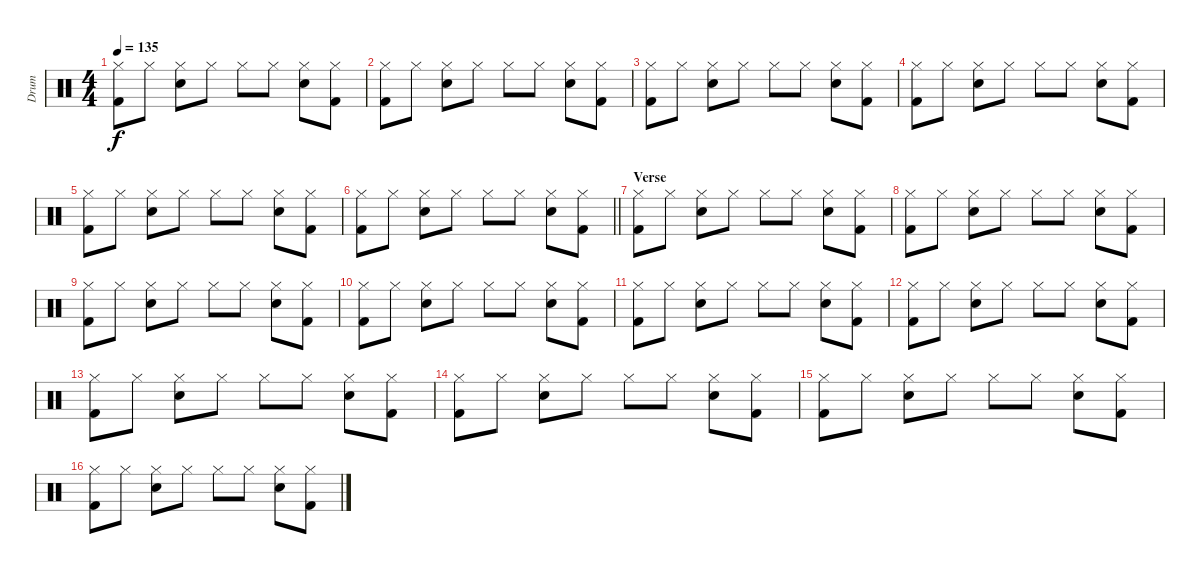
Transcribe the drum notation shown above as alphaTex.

\track ("Drum" "Drum") {instrument percussion}
\staff {score}
\articulation defaults
\ts (4 4)
\tempo 135
\clef neutral
\ks c
("Hi-Hat (closed)" "Kick (hit) 2").8{dy f} "Hi-Hat (closed)".8 ("Snare (hit) 2" "Hi-Hat (closed)").8 "Hi-Hat (closed)".8 "Hi-Hat (closed)".8 "Hi-Hat (closed)".8 ("Snare (hit) 2" "Hi-Hat (closed)").8 ("Hi-Hat (closed)" "Kick (hit) 2").8 |
("Hi-Hat (closed)" "Kick (hit) 2").8 "Hi-Hat (closed)".8 ("Snare (hit) 2" "Hi-Hat (closed)").8 "Hi-Hat (closed)".8 "Hi-Hat (closed)".8 "Hi-Hat (closed)".8 ("Snare (hit) 2" "Hi-Hat (closed)").8 ("Hi-Hat (closed)" "Kick (hit) 2").8 |
("Hi-Hat (closed)" "Kick (hit) 2").8 "Hi-Hat (closed)".8 ("Snare (hit) 2" "Hi-Hat (closed)").8 "Hi-Hat (closed)".8 "Hi-Hat (closed)".8 "Hi-Hat (closed)".8 ("Snare (hit) 2" "Hi-Hat (closed)").8 ("Hi-Hat (closed)" "Kick (hit) 2").8 |
("Hi-Hat (closed)" "Kick (hit) 2").8 "Hi-Hat (closed)".8 ("Snare (hit) 2" "Hi-Hat (closed)").8 "Hi-Hat (closed)".8 "Hi-Hat (closed)".8 "Hi-Hat (closed)".8 ("Snare (hit) 2" "Hi-Hat (closed)").8 ("Hi-Hat (closed)" "Kick (hit) 2").8 |
("Hi-Hat (closed)" "Kick (hit) 2").8 "Hi-Hat (closed)".8 ("Snare (hit) 2" "Hi-Hat (closed)").8 "Hi-Hat (closed)".8 "Hi-Hat (closed)".8 "Hi-Hat (closed)".8 ("Snare (hit) 2" "Hi-Hat (closed)").8 ("Hi-Hat (closed)" "Kick (hit) 2").8 |
\barLineRight lightlight
("Hi-Hat (closed)" "Kick (hit) 2").8 "Hi-Hat (closed)".8 ("Snare (hit) 2" "Hi-Hat (closed)").8 "Hi-Hat (closed)".8 "Hi-Hat (closed)".8 "Hi-Hat (closed)".8 ("Snare (hit) 2" "Hi-Hat (closed)").8 ("Hi-Hat (closed)" "Kick (hit) 2").8 |
\section ("" "Verse")
("Hi-Hat (closed)" "Kick (hit) 2").8 "Hi-Hat (closed)".8 ("Snare (hit) 2" "Hi-Hat (closed)").8 "Hi-Hat (closed)".8 "Hi-Hat (closed)".8 "Hi-Hat (closed)".8 ("Snare (hit) 2" "Hi-Hat (closed)").8 ("Hi-Hat (closed)" "Kick (hit) 2").8 |
("Hi-Hat (closed)" "Kick (hit) 2").8 "Hi-Hat (closed)".8 ("Snare (hit) 2" "Hi-Hat (closed)").8 "Hi-Hat (closed)".8 "Hi-Hat (closed)".8 "Hi-Hat (closed)".8 ("Snare (hit) 2" "Hi-Hat (closed)").8 ("Hi-Hat (closed)" "Kick (hit) 2").8 |
("Hi-Hat (closed)" "Kick (hit) 2").8 "Hi-Hat (closed)".8 ("Snare (hit) 2" "Hi-Hat (closed)").8 "Hi-Hat (closed)".8 "Hi-Hat (closed)".8 "Hi-Hat (closed)".8 ("Snare (hit) 2" "Hi-Hat (closed)").8 ("Hi-Hat (closed)" "Kick (hit) 2").8 |
("Hi-Hat (closed)" "Kick (hit) 2").8 "Hi-Hat (closed)".8 ("Snare (hit) 2" "Hi-Hat (closed)").8 "Hi-Hat (closed)".8 "Hi-Hat (closed)".8 "Hi-Hat (closed)".8 ("Snare (hit) 2" "Hi-Hat (closed)").8 ("Hi-Hat (closed)" "Kick (hit) 2").8 |
("Hi-Hat (closed)" "Kick (hit) 2").8 "Hi-Hat (closed)".8 ("Snare (hit) 2" "Hi-Hat (closed)").8 "Hi-Hat (closed)".8 "Hi-Hat (closed)".8 "Hi-Hat (closed)".8 ("Snare (hit) 2" "Hi-Hat (closed)").8 ("Hi-Hat (closed)" "Kick (hit) 2").8 |
("Hi-Hat (closed)" "Kick (hit) 2").8 "Hi-Hat (closed)".8 ("Snare (hit) 2" "Hi-Hat (closed)").8 "Hi-Hat (closed)".8 "Hi-Hat (closed)".8 "Hi-Hat (closed)".8 ("Snare (hit) 2" "Hi-Hat (closed)").8 ("Hi-Hat (closed)" "Kick (hit) 2").8 |
("Hi-Hat (closed)" "Kick (hit) 2").8 "Hi-Hat (closed)".8 ("Snare (hit) 2" "Hi-Hat (closed)").8 "Hi-Hat (closed)".8 "Hi-Hat (closed)".8 "Hi-Hat (closed)".8 ("Snare (hit) 2" "Hi-Hat (closed)").8 ("Hi-Hat (closed)" "Kick (hit) 2").8 |
("Hi-Hat (closed)" "Kick (hit) 2").8 "Hi-Hat (closed)".8 ("Snare (hit) 2" "Hi-Hat (closed)").8 "Hi-Hat (closed)".8 "Hi-Hat (closed)".8 "Hi-Hat (closed)".8 ("Snare (hit) 2" "Hi-Hat (closed)").8 ("Hi-Hat (closed)" "Kick (hit) 2").8 |
("Hi-Hat (closed)" "Kick (hit) 2").8 "Hi-Hat (closed)".8 ("Snare (hit) 2" "Hi-Hat (closed)").8 "Hi-Hat (closed)".8 "Hi-Hat (closed)".8 "Hi-Hat (closed)".8 ("Snare (hit) 2" "Hi-Hat (closed)").8 ("Hi-Hat (closed)" "Kick (hit) 2").8 |
("Hi-Hat (closed)" "Kick (hit) 2").8 "Hi-Hat (closed)".8 ("Snare (hit) 2" "Hi-Hat (closed)").8 "Hi-Hat (closed)".8 "Hi-Hat (closed)".8 "Hi-Hat (closed)".8 ("Snare (hit) 2" "Hi-Hat (closed)").8 ("Hi-Hat (closed)" "Kick (hit) 2").8
